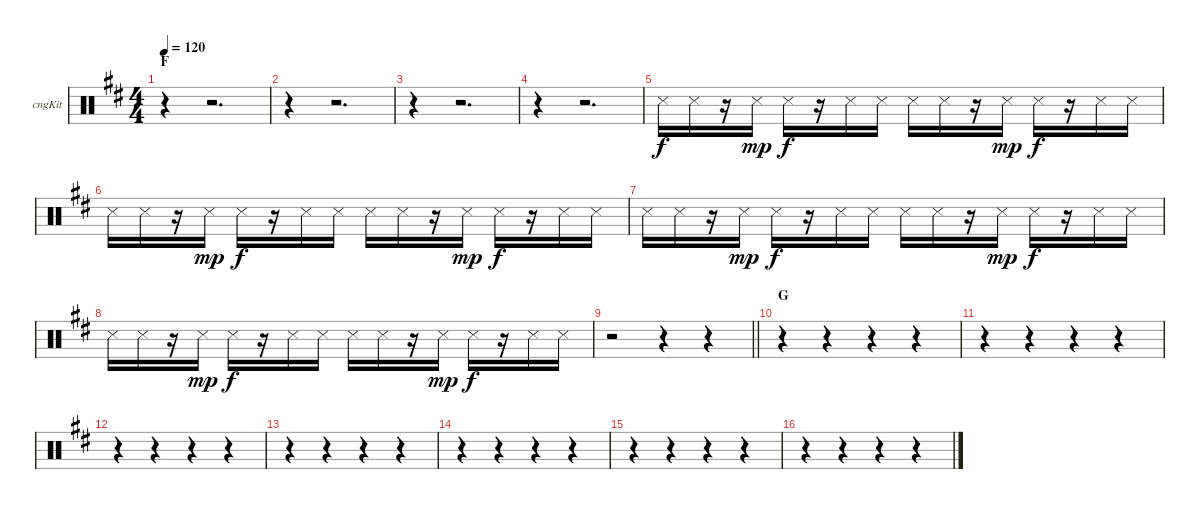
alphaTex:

\bracketExtendMode groupsimilarinstruments
\firstSystemTrackNameOrientation horizontal
\otherSystemsTrackNameOrientation horizontal
\track ("Congas" "cngKit") {instrument percussion}
\staff {score}
\articulation defaults
\ts (4 4)
\section ("" "F")
\tempo 120
\clef neutral
\ks d
r.4{dy f} r.2{d} |
r.4 r.2{d} |
r.4 r.2{d} |
r.4 r.2{d} |
"Snare (side stick) 3".16 "Snare (side stick) 3".16 r.16 "Snare (side stick) 3".16{dy mp} "Snare (side stick) 3".16{dy f} r.16 "Snare (side stick) 3".16 "Snare (side stick) 3".16 "Snare (side stick) 3".16 "Snare (side stick) 3".16 r.16 "Snare (side stick) 3".16{dy mp} "Snare (side stick) 3".16{dy f} r.16 "Snare (side stick) 3".16 "Snare (side stick) 3".16 |
"Snare (side stick) 3".16 "Snare (side stick) 3".16 r.16 "Snare (side stick) 3".16{dy mp} "Snare (side stick) 3".16{dy f} r.16 "Snare (side stick) 3".16 "Snare (side stick) 3".16 "Snare (side stick) 3".16 "Snare (side stick) 3".16 r.16 "Snare (side stick) 3".16{dy mp} "Snare (side stick) 3".16{dy f} r.16 "Snare (side stick) 3".16 "Snare (side stick) 3".16 |
"Snare (side stick) 3".16 "Snare (side stick) 3".16 r.16 "Snare (side stick) 3".16{dy mp} "Snare (side stick) 3".16{dy f} r.16 "Snare (side stick) 3".16 "Snare (side stick) 3".16 "Snare (side stick) 3".16 "Snare (side stick) 3".16 r.16 "Snare (side stick) 3".16{dy mp} "Snare (side stick) 3".16{dy f} r.16 "Snare (side stick) 3".16 "Snare (side stick) 3".16 |
"Snare (side stick) 3".16 "Snare (side stick) 3".16 r.16 "Snare (side stick) 3".16{dy mp} "Snare (side stick) 3".16{dy f} r.16 "Snare (side stick) 3".16 "Snare (side stick) 3".16 "Snare (side stick) 3".16 "Snare (side stick) 3".16 r.16 "Snare (side stick) 3".16{dy mp} "Snare (side stick) 3".16{dy f} r.16 "Snare (side stick) 3".16 "Snare (side stick) 3".16 |
\barLineRight lightlight
r.2 r.4 r.4 |
\section ("" "G")
r.4 r.4 r.4 r.4 |
r.4 r.4 r.4 r.4 |
r.4 r.4 r.4 r.4 |
r.4 r.4 r.4 r.4 |
r.4 r.4 r.4 r.4 |
r.4 r.4 r.4 r.4 |
r.4 r.4 r.4 r.4
